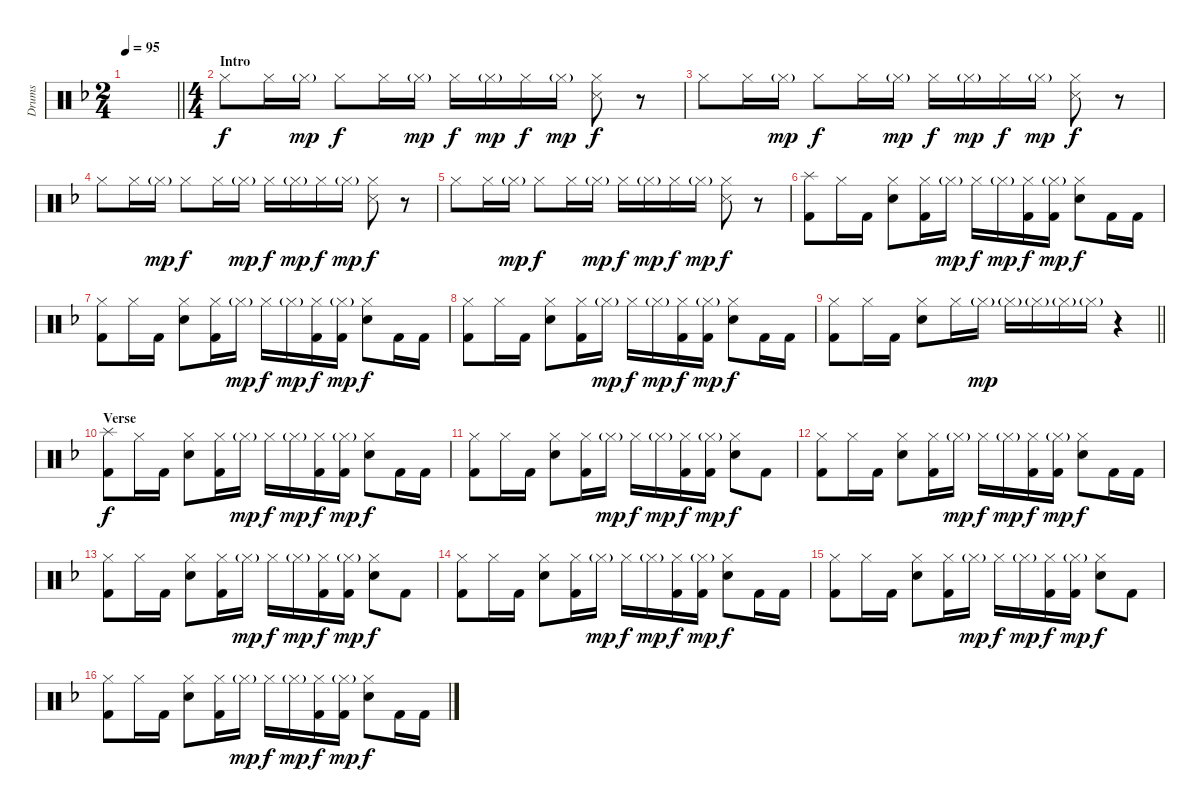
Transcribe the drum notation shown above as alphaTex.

\track ("Drums" "Drums") {instrument percussion}
\staff {score}
\articulation defaults
\ts (2 4)
\tempo 95
\clef neutral
\barLineRight lightlight
\ks f
|
\ts (4 4)
\section ("" "Intro")
"Hi-Hat (closed)".8 "Hi-Hat (closed)".16 "Hi-Hat (closed)"{g}.16{dy mp} "Hi-Hat (closed)".8{dy f} "Hi-Hat (closed)".16 "Hi-Hat (closed)"{g}.16{dy mp} "Hi-Hat (closed)".16{dy f} "Hi-Hat (closed)"{g}.16{dy mp} "Hi-Hat (closed)".16{dy f} "Hi-Hat (closed)"{g}.16{dy mp} ("Hi-Hat (closed)" "Snare (side stick) 3").8{dy f} r.8 |
"Hi-Hat (closed)".8 "Hi-Hat (closed)".16 "Hi-Hat (closed)"{g}.16{dy mp} "Hi-Hat (closed)".8{dy f} "Hi-Hat (closed)".16 "Hi-Hat (closed)"{g}.16{dy mp} "Hi-Hat (closed)".16{dy f} "Hi-Hat (closed)"{g}.16{dy mp} "Hi-Hat (closed)".16{dy f} "Hi-Hat (closed)"{g}.16{dy mp} ("Hi-Hat (closed)" "Snare (side stick) 3").8{dy f} r.8 |
"Hi-Hat (closed)".8 "Hi-Hat (closed)".16 "Hi-Hat (closed)"{g}.16{dy mp} "Hi-Hat (closed)".8{dy f} "Hi-Hat (closed)".16 "Hi-Hat (closed)"{g}.16{dy mp} "Hi-Hat (closed)".16{dy f} "Hi-Hat (closed)"{g}.16{dy mp} "Hi-Hat (closed)".16{dy f} "Hi-Hat (closed)"{g}.16{dy mp} ("Hi-Hat (closed)" "Snare (side stick) 3").8{dy f} r.8 |
"Hi-Hat (closed)".8 "Hi-Hat (closed)".16 "Hi-Hat (closed)"{g}.16{dy mp} "Hi-Hat (closed)".8{dy f} "Hi-Hat (closed)".16 "Hi-Hat (closed)"{g}.16{dy mp} "Hi-Hat (closed)".16{dy f} "Hi-Hat (closed)"{g}.16{dy mp} "Hi-Hat (closed)".16{dy f} "Hi-Hat (closed)"{g}.16{dy mp} ("Hi-Hat (closed)" "Snare (side stick) 3").8{dy f} r.8 |
("Splash (hit)" "Kick (hit) 2").8 "Hi-Hat (closed)".16 "Kick (hit) 2".16 ("Hi-Hat (closed)" "Electric Snare (hit)").8 ("Hi-Hat (closed)" "Kick (hit) 2").16 "Hi-Hat (closed)"{g}.16{dy mp} "Hi-Hat (closed)".16{dy f} "Hi-Hat (closed)"{g}.16{dy mp} ("Hi-Hat (closed)" "Kick (hit) 2").16{dy f} ("Hi-Hat (closed)"{g} "Kick (hit) 2").16{dy mp} ("Hi-Hat (closed)" "Electric Snare (hit)").8{dy f} "Kick (hit) 2".16 "Kick (hit) 2".16 |
("Hi-Hat (closed)" "Kick (hit) 2").8 "Hi-Hat (closed)".16 "Kick (hit) 2".16 ("Hi-Hat (closed)" "Electric Snare (hit)").8 ("Hi-Hat (closed)" "Kick (hit) 2").16 "Hi-Hat (closed)"{g}.16{dy mp} "Hi-Hat (closed)".16{dy f} "Hi-Hat (closed)"{g}.16{dy mp} ("Hi-Hat (closed)" "Kick (hit) 2").16{dy f} ("Hi-Hat (closed)"{g} "Kick (hit) 2").16{dy mp} ("Hi-Hat (closed)" "Electric Snare (hit)").8{dy f} "Kick (hit) 2".16 "Kick (hit) 2".16 |
("Hi-Hat (closed)" "Kick (hit) 2").8 "Hi-Hat (closed)".16 "Kick (hit) 2".16 ("Hi-Hat (closed)" "Electric Snare (hit)").8 ("Hi-Hat (closed)" "Kick (hit) 2").16 "Hi-Hat (closed)"{g}.16{dy mp} "Hi-Hat (closed)".16{dy f} "Hi-Hat (closed)"{g}.16{dy mp} ("Hi-Hat (closed)" "Kick (hit) 2").16{dy f} ("Hi-Hat (closed)"{g} "Kick (hit) 2").16{dy mp} ("Hi-Hat (closed)" "Electric Snare (hit)").8{dy f} "Kick (hit) 2".16 "Kick (hit) 2".16 |
\barLineRight lightlight
("Hi-Hat (closed)" "Kick (hit) 2").8 "Hi-Hat (closed)".16 "Kick (hit) 2".16 ("Hi-Hat (closed)" "Electric Snare (hit)").8 "Hi-Hat (closed)".16 "Hi-Hat (closed)"{g}.16{dy mp} "Hi-Hat (closed)"{g}.16 "Hi-Hat (closed)"{g}.16 "Hi-Hat (closed)"{g}.16 "Hi-Hat (closed)"{g}.16 r.4 |
\section ("" "Verse")
("Splash (hit)" "Kick (hit) 2").8{dy f} "Hi-Hat (closed)".16 "Kick (hit) 2".16 ("Hi-Hat (closed)" "Electric Snare (hit)").8 ("Hi-Hat (closed)" "Kick (hit) 2").16 "Hi-Hat (closed)"{g}.16{dy mp} "Hi-Hat (closed)".16{dy f} "Hi-Hat (closed)"{g}.16{dy mp} ("Hi-Hat (closed)" "Kick (hit) 2").16{dy f} ("Hi-Hat (closed)"{g} "Kick (hit) 2").16{dy mp} ("Hi-Hat (closed)" "Electric Snare (hit)").8{dy f} "Kick (hit) 2".16 "Kick (hit) 2".16 |
("Hi-Hat (closed)" "Kick (hit) 2").8 "Hi-Hat (closed)".16 "Kick (hit) 2".16 ("Hi-Hat (closed)" "Electric Snare (hit)").8 ("Hi-Hat (closed)" "Kick (hit) 2").16 "Hi-Hat (closed)"{g}.16{dy mp} "Hi-Hat (closed)".16{dy f} "Hi-Hat (closed)"{g}.16{dy mp} ("Hi-Hat (closed)" "Kick (hit) 2").16{dy f} ("Hi-Hat (closed)"{g} "Kick (hit) 2").16{dy mp} ("Hi-Hat (closed)" "Electric Snare (hit)").8{dy f} "Kick (hit) 2".8 |
("Hi-Hat (closed)" "Kick (hit) 2").8 "Hi-Hat (closed)".16 "Kick (hit) 2".16 ("Hi-Hat (closed)" "Electric Snare (hit)").8 ("Hi-Hat (closed)" "Kick (hit) 2").16 "Hi-Hat (closed)"{g}.16{dy mp} "Hi-Hat (closed)".16{dy f} "Hi-Hat (closed)"{g}.16{dy mp} ("Hi-Hat (closed)" "Kick (hit) 2").16{dy f} ("Hi-Hat (closed)"{g} "Kick (hit) 2").16{dy mp} ("Hi-Hat (closed)" "Electric Snare (hit)").8{dy f} "Kick (hit) 2".16 "Kick (hit) 2".16 |
("Hi-Hat (closed)" "Kick (hit) 2").8 "Hi-Hat (closed)".16 "Kick (hit) 2".16 ("Hi-Hat (closed)" "Electric Snare (hit)").8 ("Hi-Hat (closed)" "Kick (hit) 2").16 "Hi-Hat (closed)"{g}.16{dy mp} "Hi-Hat (closed)".16{dy f} "Hi-Hat (closed)"{g}.16{dy mp} ("Hi-Hat (closed)" "Kick (hit) 2").16{dy f} ("Hi-Hat (closed)"{g} "Kick (hit) 2").16{dy mp} ("Hi-Hat (closed)" "Electric Snare (hit)").8{dy f} "Kick (hit) 2".8 |
("Hi-Hat (closed)" "Kick (hit) 2").8 "Hi-Hat (closed)".16 "Kick (hit) 2".16 ("Hi-Hat (closed)" "Electric Snare (hit)").8 ("Hi-Hat (closed)" "Kick (hit) 2").16 "Hi-Hat (closed)"{g}.16{dy mp} "Hi-Hat (closed)".16{dy f} "Hi-Hat (closed)"{g}.16{dy mp} ("Hi-Hat (closed)" "Kick (hit) 2").16{dy f} ("Hi-Hat (closed)"{g} "Kick (hit) 2").16{dy mp} ("Hi-Hat (closed)" "Electric Snare (hit)").8{dy f} "Kick (hit) 2".16 "Kick (hit) 2".16 |
("Hi-Hat (closed)" "Kick (hit) 2").8 "Hi-Hat (closed)".16 "Kick (hit) 2".16 ("Hi-Hat (closed)" "Electric Snare (hit)").8 ("Hi-Hat (closed)" "Kick (hit) 2").16 "Hi-Hat (closed)"{g}.16{dy mp} "Hi-Hat (closed)".16{dy f} "Hi-Hat (closed)"{g}.16{dy mp} ("Hi-Hat (closed)" "Kick (hit) 2").16{dy f} ("Hi-Hat (closed)"{g} "Kick (hit) 2").16{dy mp} ("Hi-Hat (closed)" "Electric Snare (hit)").8{dy f} "Kick (hit) 2".8 |
("Hi-Hat (closed)" "Kick (hit) 2").8 "Hi-Hat (closed)".16 "Kick (hit) 2".16 ("Hi-Hat (closed)" "Electric Snare (hit)").8 ("Hi-Hat (closed)" "Kick (hit) 2").16 "Hi-Hat (closed)"{g}.16{dy mp} "Hi-Hat (closed)".16{dy f} "Hi-Hat (closed)"{g}.16{dy mp} ("Hi-Hat (closed)" "Kick (hit) 2").16{dy f} ("Hi-Hat (closed)"{g} "Kick (hit) 2").16{dy mp} ("Hi-Hat (closed)" "Electric Snare (hit)").8{dy f} "Kick (hit) 2".16 "Kick (hit) 2".16
